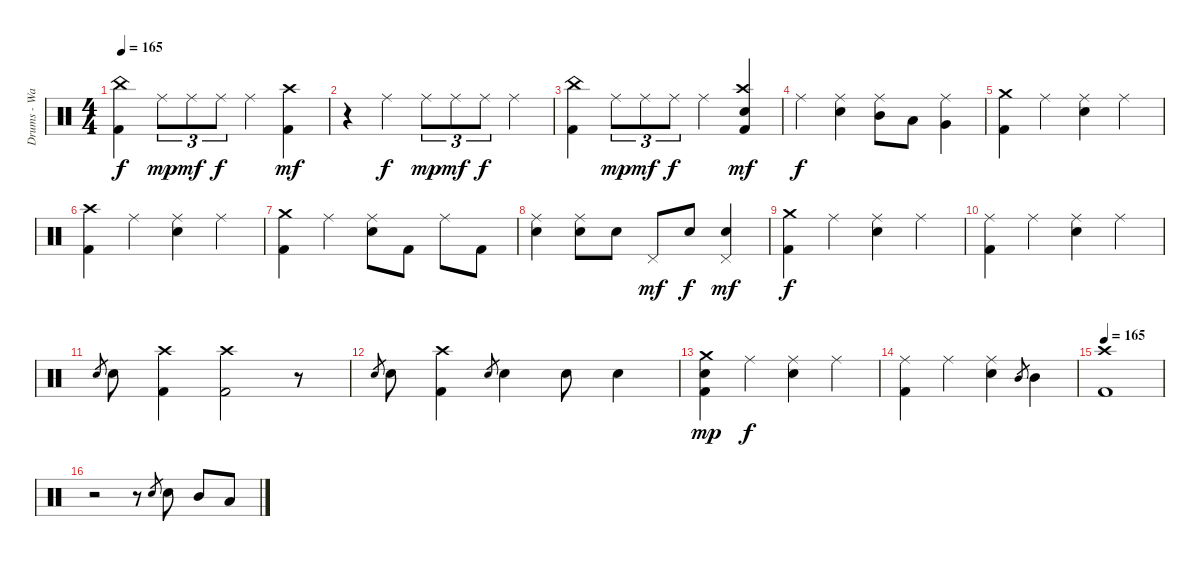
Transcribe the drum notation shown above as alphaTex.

\track ("Drums - Ward" "Drums - Wa") {instrument percussion}
\staff {score}
\articulation defaults
\ts (4 4)
\tempo 165
\clef neutral
\ks c
("China (hit)" "Kick (hit) 2").4{dy f} "Ride (middle)".8{tu (3 2) dy mp} "Ride (middle)".8{tu (3 2) dy mf} "Ride (middle)".8{tu (3 2) dy f} "Ride (middle)".4 ("Crash high (hit)" "Kick (hit) 2").4{dy mf} |
r.4 "Ride (middle)".4{dy f} "Ride (middle)".8{tu (3 2) dy mp} "Ride (middle)".8{tu (3 2) dy mf} "Ride (middle)".8{tu (3 2) dy f} "Ride (middle)".4 |
("China (hit)" "Kick (hit) 2").4 "Ride (middle)".8{tu (3 2) dy mp} "Ride (middle)".8{tu (3 2) dy mf} "Ride (middle)".8{tu (3 2) dy f} "Ride (middle)".4 ("Crash high (hit)" "Electric Snare (hit)" "Kick (hit) 2").4{dy mf} |
"Ride (middle)".4{dy f} ("Ride (middle)" "Electric Snare (hit)").4 ("Ride (middle)" "Mid Tom (hit)").8 "Low Tom (hit)".8 ("Ride (middle)" "Very Low Tom (hit)").4 |
("Crash medium (hit)" "Kick (hit) 2").4 "Ride (middle)".4 ("Ride (middle)" "Electric Snare (hit)").4 "Ride (middle)".4 |
("Crash high (hit)" "Kick (hit) 2").4 "Ride (middle)".4 ("Ride (middle)" "Electric Snare (hit)").4 "Ride (middle)".4 |
("Crash medium (hit)" "Kick (hit) 2").4 "Ride (middle)".4 ("Ride (middle)" "Electric Snare (hit)").8 "Kick (hit) 2".8 "Ride (middle)".8 "Kick (hit) 2".8 |
("Ride (middle)" "Electric Snare (hit)").4 ("Ride (middle)" "Electric Snare (hit)").8 "Electric Snare (hit)".8 "Pedal Hi-Hat (hit)".8{dy mf} "Electric Snare (hit)".8{dy f} ("Pedal Hi-Hat (hit)" "Electric Snare (hit)").4{dy mf} |
("Crash medium (hit)" "Kick (hit) 2").4{dy f} "Ride (middle)".4 ("Ride (middle)" "Electric Snare (hit)").4 "Ride (middle)".4 |
("Ride (middle)" "Kick (hit) 2").4 "Ride (middle)".4 ("Ride (middle)" "Electric Snare (hit)").4 "Ride (middle)".4 |
"Electric Snare (hit)".8{gr} "Electric Snare (hit)".8 ("Crash high (hit)" "Kick (hit) 2").4 ("Crash high (hit)" "Kick (hit) 2").2 r.8 |
"Electric Snare (hit)".8{gr} "Electric Snare (hit)".8 ("Crash high (hit)" "Kick (hit) 2").4 "Electric Snare (hit)".8{gr} "Electric Snare (hit)".4 "Electric Snare (hit)".8 "Electric Snare (hit)".4 |
("Crash medium (hit)" "Electric Snare (hit)" "Kick (hit) 2").4{dy mp} "Ride (middle)".4{dy f} ("Ride (middle)" "Electric Snare (hit)").4 "Ride (middle)".4 |
("Ride (middle)" "Kick (hit) 2").4 "Ride (middle)".4 ("Ride (middle)" "Electric Snare (hit)").4 "Mid Tom (hit)".8{gr} "Mid Tom (hit)".4 |
\tempo 165
("Crash high (hit)" "Kick (hit) 2").1 |
r.2 r.8 "Electric Snare (hit)".8{gr} "Electric Snare (hit)".8 "Mid Tom (hit)".8 "Low Tom (hit)".8
